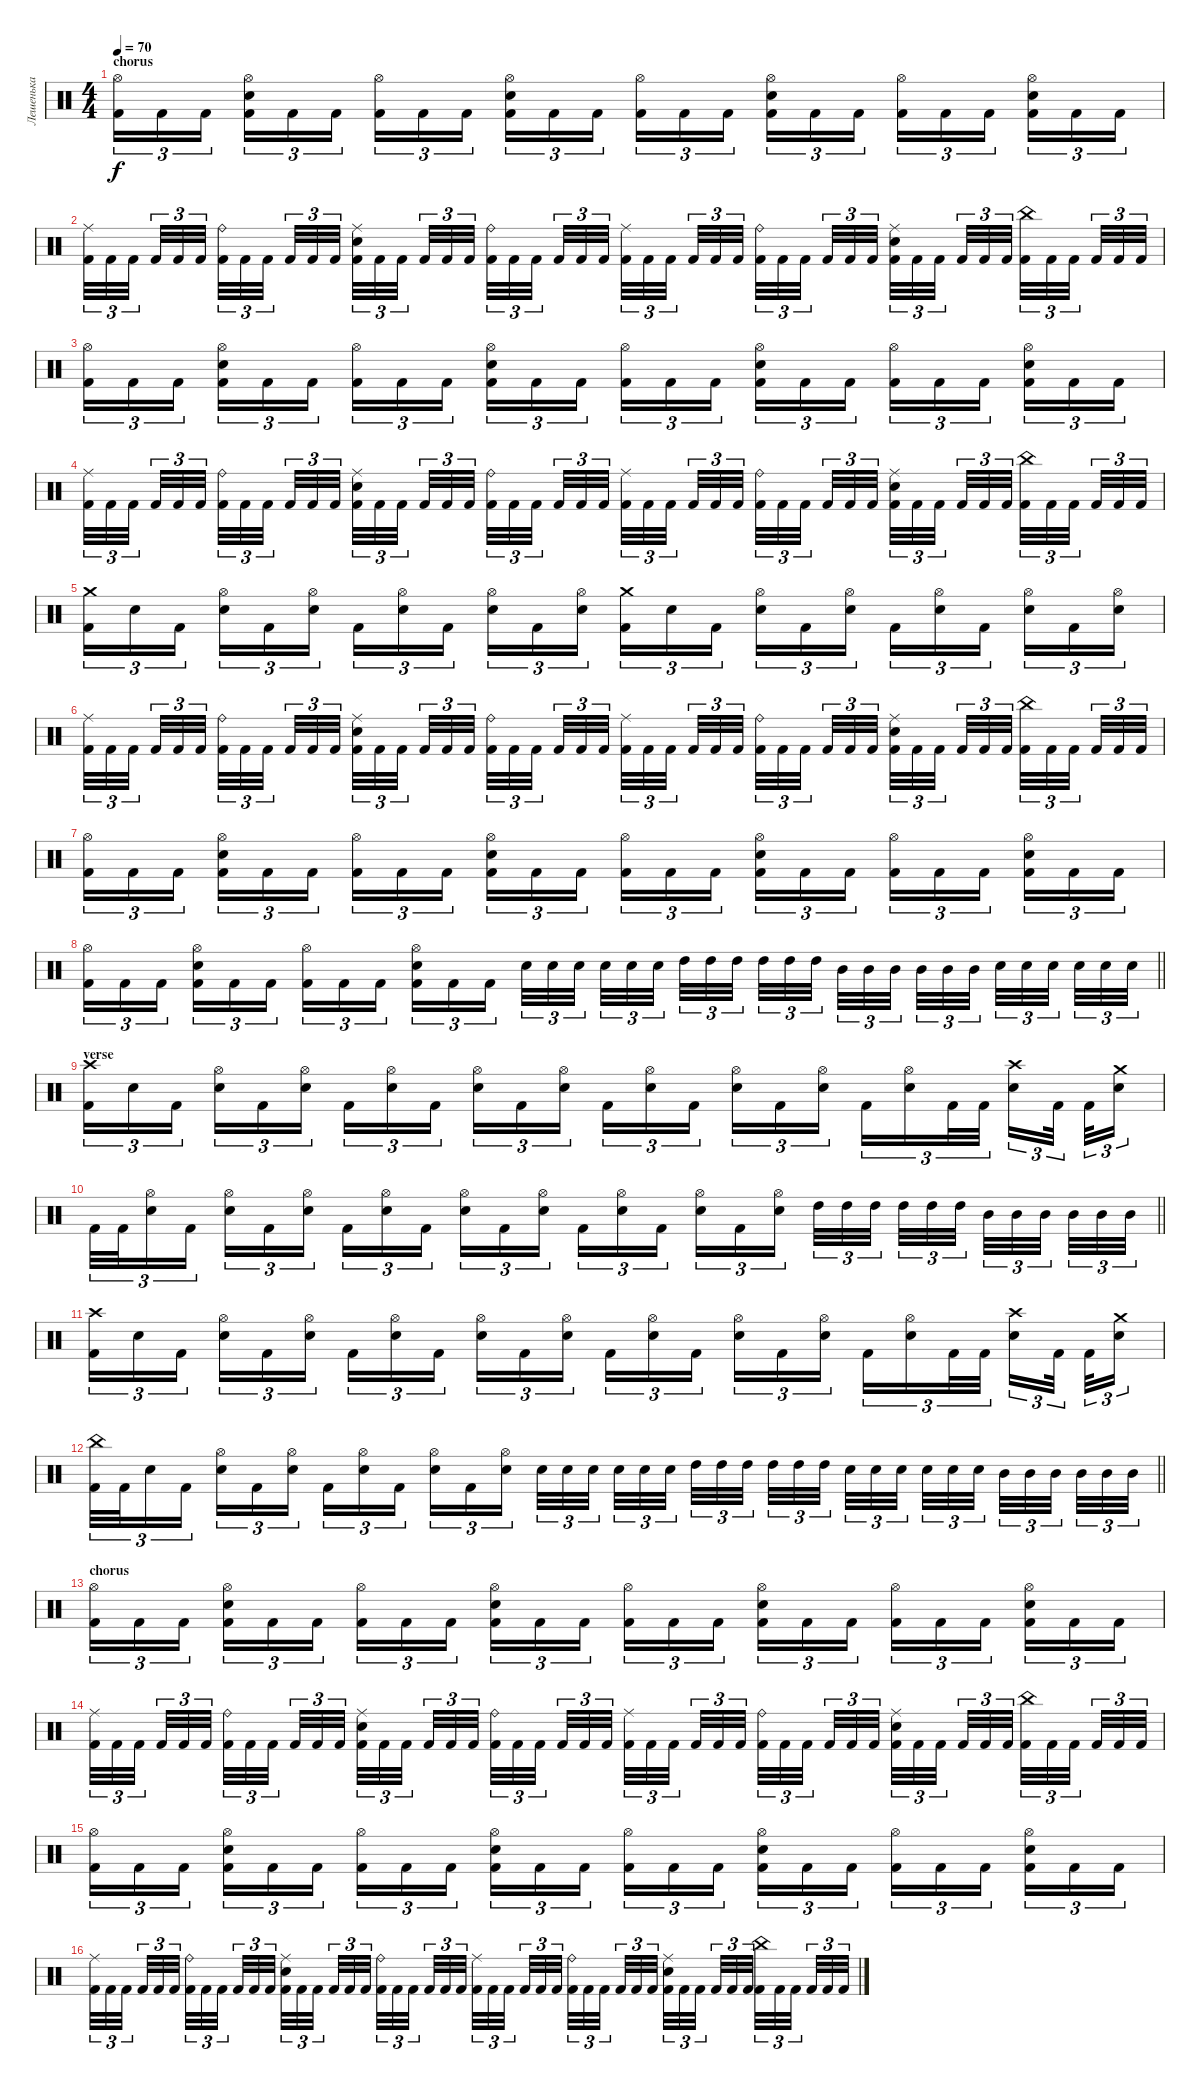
\track ("Лешенька" "Лешенька") {instrument percussion}
\staff {score}
\articulation defaults
\ts (4 4)
\section ("" "chorus")
\tempo 70
\clef neutral
\ks c
("Hi-Hat (open)" "Kick (hit) 2").16{tu (3 2) dy f} "Kick (hit) 2".16{tu (3 2)} "Kick (hit) 2".16{tu (3 2) beam splitsecondary} ("Hi-Hat (open)" "Electric Snare (hit)" "Kick (hit) 2").16{tu (3 2)} "Kick (hit) 2".16{tu (3 2)} "Kick (hit) 2".16{tu (3 2)} ("Hi-Hat (open)" "Kick (hit) 2").16{tu (3 2)} "Kick (hit) 2".16{tu (3 2)} "Kick (hit) 2".16{tu (3 2) beam splitsecondary} ("Hi-Hat (open)" "Electric Snare (hit)" "Kick (hit) 2").16{tu (3 2)} "Kick (hit) 2".16{tu (3 2)} "Kick (hit) 2".16{tu (3 2)} ("Hi-Hat (open)" "Kick (hit) 2").16{tu (3 2)} "Kick (hit) 2".16{tu (3 2)} "Kick (hit) 2".16{tu (3 2) beam splitsecondary} ("Hi-Hat (open)" "Electric Snare (hit)" "Kick (hit) 2").16{tu (3 2)} "Kick (hit) 2".16{tu (3 2)} "Kick (hit) 2".16{tu (3 2)} ("Hi-Hat (open)" "Kick (hit) 2").16{tu (3 2)} "Kick (hit) 2".16{tu (3 2)} "Kick (hit) 2".16{tu (3 2) beam splitsecondary} ("Hi-Hat (open)" "Electric Snare (hit)" "Kick (hit) 2").16{tu (3 2)} "Kick (hit) 2".16{tu (3 2)} "Kick (hit) 2".16{tu (3 2)} |
("Ride (middle)" "Kick (hit) 2").32{tu (3 2)} "Kick (hit) 2".32{tu (3 2)} "Kick (hit) 2".32{tu (3 2) beam splitsecondary} "Kick (hit) 2".32{tu (3 2)} "Kick (hit) 2".32{tu (3 2)} "Kick (hit) 2".32{tu (3 2) beam splitsecondary} ("Ride (bell)" "Kick (hit) 2").32{tu (3 2)} "Kick (hit) 2".32{tu (3 2)} "Kick (hit) 2".32{tu (3 2) beam splitsecondary} "Kick (hit) 2".32{tu (3 2)} "Kick (hit) 2".32{tu (3 2)} "Kick (hit) 2".32{tu (3 2)} ("Ride (middle)" "Electric Snare (hit)" "Kick (hit) 2").32{tu (3 2)} "Kick (hit) 2".32{tu (3 2)} "Kick (hit) 2".32{tu (3 2) beam splitsecondary} "Kick (hit) 2".32{tu (3 2)} "Kick (hit) 2".32{tu (3 2)} "Kick (hit) 2".32{tu (3 2) beam splitsecondary} ("Ride (bell)" "Kick (hit) 2").32{tu (3 2)} "Kick (hit) 2".32{tu (3 2)} "Kick (hit) 2".32{tu (3 2) beam splitsecondary} "Kick (hit) 2".32{tu (3 2)} "Kick (hit) 2".32{tu (3 2)} "Kick (hit) 2".32{tu (3 2)} ("Ride (middle)" "Kick (hit) 2").32{tu (3 2)} "Kick (hit) 2".32{tu (3 2)} "Kick (hit) 2".32{tu (3 2) beam splitsecondary} "Kick (hit) 2".32{tu (3 2)} "Kick (hit) 2".32{tu (3 2)} "Kick (hit) 2".32{tu (3 2) beam splitsecondary} ("Ride (bell)" "Kick (hit) 2").32{tu (3 2)} "Kick (hit) 2".32{tu (3 2)} "Kick (hit) 2".32{tu (3 2) beam splitsecondary} "Kick (hit) 2".32{tu (3 2)} "Kick (hit) 2".32{tu (3 2)} "Kick (hit) 2".32{tu (3 2)} ("Ride (middle)" "Electric Snare (hit)" "Kick (hit) 2").32{tu (3 2)} "Kick (hit) 2".32{tu (3 2)} "Kick (hit) 2".32{tu (3 2) beam splitsecondary} "Kick (hit) 2".32{tu (3 2)} "Kick (hit) 2".32{tu (3 2)} "Kick (hit) 2".32{tu (3 2) beam splitsecondary} ("China (hit)" "Kick (hit) 2").32{tu (3 2)} "Kick (hit) 2".32{tu (3 2)} "Kick (hit) 2".32{tu (3 2) beam splitsecondary} "Kick (hit) 2".32{tu (3 2)} "Kick (hit) 2".32{tu (3 2)} "Kick (hit) 2".32{tu (3 2)} |
("Hi-Hat (open)" "Kick (hit) 2").16{tu (3 2)} "Kick (hit) 2".16{tu (3 2)} "Kick (hit) 2".16{tu (3 2) beam splitsecondary} ("Hi-Hat (open)" "Electric Snare (hit)" "Kick (hit) 2").16{tu (3 2)} "Kick (hit) 2".16{tu (3 2)} "Kick (hit) 2".16{tu (3 2)} ("Hi-Hat (open)" "Kick (hit) 2").16{tu (3 2)} "Kick (hit) 2".16{tu (3 2)} "Kick (hit) 2".16{tu (3 2) beam splitsecondary} ("Hi-Hat (open)" "Electric Snare (hit)" "Kick (hit) 2").16{tu (3 2)} "Kick (hit) 2".16{tu (3 2)} "Kick (hit) 2".16{tu (3 2)} ("Hi-Hat (open)" "Kick (hit) 2").16{tu (3 2)} "Kick (hit) 2".16{tu (3 2)} "Kick (hit) 2".16{tu (3 2) beam splitsecondary} ("Hi-Hat (open)" "Electric Snare (hit)" "Kick (hit) 2").16{tu (3 2)} "Kick (hit) 2".16{tu (3 2)} "Kick (hit) 2".16{tu (3 2)} ("Hi-Hat (open)" "Kick (hit) 2").16{tu (3 2)} "Kick (hit) 2".16{tu (3 2)} "Kick (hit) 2".16{tu (3 2) beam splitsecondary} ("Hi-Hat (open)" "Electric Snare (hit)" "Kick (hit) 2").16{tu (3 2)} "Kick (hit) 2".16{tu (3 2)} "Kick (hit) 2".16{tu (3 2)} |
("Ride (middle)" "Kick (hit) 2").32{tu (3 2)} "Kick (hit) 2".32{tu (3 2)} "Kick (hit) 2".32{tu (3 2) beam splitsecondary} "Kick (hit) 2".32{tu (3 2)} "Kick (hit) 2".32{tu (3 2)} "Kick (hit) 2".32{tu (3 2) beam splitsecondary} ("Ride (bell)" "Kick (hit) 2").32{tu (3 2)} "Kick (hit) 2".32{tu (3 2)} "Kick (hit) 2".32{tu (3 2) beam splitsecondary} "Kick (hit) 2".32{tu (3 2)} "Kick (hit) 2".32{tu (3 2)} "Kick (hit) 2".32{tu (3 2)} ("Ride (middle)" "Electric Snare (hit)" "Kick (hit) 2").32{tu (3 2)} "Kick (hit) 2".32{tu (3 2)} "Kick (hit) 2".32{tu (3 2) beam splitsecondary} "Kick (hit) 2".32{tu (3 2)} "Kick (hit) 2".32{tu (3 2)} "Kick (hit) 2".32{tu (3 2) beam splitsecondary} ("Ride (bell)" "Kick (hit) 2").32{tu (3 2)} "Kick (hit) 2".32{tu (3 2)} "Kick (hit) 2".32{tu (3 2) beam splitsecondary} "Kick (hit) 2".32{tu (3 2)} "Kick (hit) 2".32{tu (3 2)} "Kick (hit) 2".32{tu (3 2)} ("Ride (middle)" "Kick (hit) 2").32{tu (3 2)} "Kick (hit) 2".32{tu (3 2)} "Kick (hit) 2".32{tu (3 2) beam splitsecondary} "Kick (hit) 2".32{tu (3 2)} "Kick (hit) 2".32{tu (3 2)} "Kick (hit) 2".32{tu (3 2) beam splitsecondary} ("Ride (bell)" "Kick (hit) 2").32{tu (3 2)} "Kick (hit) 2".32{tu (3 2)} "Kick (hit) 2".32{tu (3 2) beam splitsecondary} "Kick (hit) 2".32{tu (3 2)} "Kick (hit) 2".32{tu (3 2)} "Kick (hit) 2".32{tu (3 2)} ("Ride (middle)" "Electric Snare (hit)" "Kick (hit) 2").32{tu (3 2)} "Kick (hit) 2".32{tu (3 2)} "Kick (hit) 2".32{tu (3 2) beam splitsecondary} "Kick (hit) 2".32{tu (3 2)} "Kick (hit) 2".32{tu (3 2)} "Kick (hit) 2".32{tu (3 2) beam splitsecondary} ("China (hit)" "Kick (hit) 2").32{tu (3 2)} "Kick (hit) 2".32{tu (3 2)} "Kick (hit) 2".32{tu (3 2) beam splitsecondary} "Kick (hit) 2".32{tu (3 2)} "Kick (hit) 2".32{tu (3 2)} "Kick (hit) 2".32{tu (3 2)} |
("Crash medium (hit)" "Kick (hit) 2").16{tu (3 2)} "Electric Snare (hit)".16{tu (3 2)} "Kick (hit) 2".16{tu (3 2) beam splitsecondary} ("Hi-Hat (open)" "Electric Snare (hit)").16{tu (3 2)} "Kick (hit) 2".16{tu (3 2)} ("Hi-Hat (open)" "Electric Snare (hit)").16{tu (3 2)} "Kick (hit) 2".16{tu (3 2)} ("Hi-Hat (open)" "Electric Snare (hit)").16{tu (3 2)} "Kick (hit) 2".16{tu (3 2) beam splitsecondary} ("Hi-Hat (open)" "Electric Snare (hit)").16{tu (3 2)} "Kick (hit) 2".16{tu (3 2)} ("Hi-Hat (open)" "Electric Snare (hit)").16{tu (3 2)} ("Crash medium (hit)" "Kick (hit) 2").16{tu (3 2)} "Electric Snare (hit)".16{tu (3 2)} "Kick (hit) 2".16{tu (3 2) beam splitsecondary} ("Hi-Hat (open)" "Electric Snare (hit)").16{tu (3 2)} "Kick (hit) 2".16{tu (3 2)} ("Hi-Hat (open)" "Electric Snare (hit)").16{tu (3 2)} "Kick (hit) 2".16{tu (3 2)} ("Hi-Hat (open)" "Electric Snare (hit)").16{tu (3 2)} "Kick (hit) 2".16{tu (3 2) beam splitsecondary} ("Hi-Hat (open)" "Electric Snare (hit)").16{tu (3 2)} "Kick (hit) 2".16{tu (3 2)} ("Hi-Hat (open)" "Electric Snare (hit)").16{tu (3 2)} |
("Ride (middle)" "Kick (hit) 2").32{tu (3 2)} "Kick (hit) 2".32{tu (3 2)} "Kick (hit) 2".32{tu (3 2) beam splitsecondary} "Kick (hit) 2".32{tu (3 2)} "Kick (hit) 2".32{tu (3 2)} "Kick (hit) 2".32{tu (3 2) beam splitsecondary} ("Ride (bell)" "Kick (hit) 2").32{tu (3 2)} "Kick (hit) 2".32{tu (3 2)} "Kick (hit) 2".32{tu (3 2) beam splitsecondary} "Kick (hit) 2".32{tu (3 2)} "Kick (hit) 2".32{tu (3 2)} "Kick (hit) 2".32{tu (3 2)} ("Ride (middle)" "Electric Snare (hit)" "Kick (hit) 2").32{tu (3 2)} "Kick (hit) 2".32{tu (3 2)} "Kick (hit) 2".32{tu (3 2) beam splitsecondary} "Kick (hit) 2".32{tu (3 2)} "Kick (hit) 2".32{tu (3 2)} "Kick (hit) 2".32{tu (3 2) beam splitsecondary} ("Ride (bell)" "Kick (hit) 2").32{tu (3 2)} "Kick (hit) 2".32{tu (3 2)} "Kick (hit) 2".32{tu (3 2) beam splitsecondary} "Kick (hit) 2".32{tu (3 2)} "Kick (hit) 2".32{tu (3 2)} "Kick (hit) 2".32{tu (3 2)} ("Ride (middle)" "Kick (hit) 2").32{tu (3 2)} "Kick (hit) 2".32{tu (3 2)} "Kick (hit) 2".32{tu (3 2) beam splitsecondary} "Kick (hit) 2".32{tu (3 2)} "Kick (hit) 2".32{tu (3 2)} "Kick (hit) 2".32{tu (3 2) beam splitsecondary} ("Ride (bell)" "Kick (hit) 2").32{tu (3 2)} "Kick (hit) 2".32{tu (3 2)} "Kick (hit) 2".32{tu (3 2) beam splitsecondary} "Kick (hit) 2".32{tu (3 2)} "Kick (hit) 2".32{tu (3 2)} "Kick (hit) 2".32{tu (3 2)} ("Ride (middle)" "Electric Snare (hit)" "Kick (hit) 2").32{tu (3 2)} "Kick (hit) 2".32{tu (3 2)} "Kick (hit) 2".32{tu (3 2) beam splitsecondary} "Kick (hit) 2".32{tu (3 2)} "Kick (hit) 2".32{tu (3 2)} "Kick (hit) 2".32{tu (3 2) beam splitsecondary} ("China (hit)" "Kick (hit) 2").32{tu (3 2)} "Kick (hit) 2".32{tu (3 2)} "Kick (hit) 2".32{tu (3 2) beam splitsecondary} "Kick (hit) 2".32{tu (3 2)} "Kick (hit) 2".32{tu (3 2)} "Kick (hit) 2".32{tu (3 2)} |
("Hi-Hat (open)" "Kick (hit) 2").16{tu (3 2)} "Kick (hit) 2".16{tu (3 2)} "Kick (hit) 2".16{tu (3 2) beam splitsecondary} ("Hi-Hat (open)" "Electric Snare (hit)" "Kick (hit) 2").16{tu (3 2)} "Kick (hit) 2".16{tu (3 2)} "Kick (hit) 2".16{tu (3 2)} ("Hi-Hat (open)" "Kick (hit) 2").16{tu (3 2)} "Kick (hit) 2".16{tu (3 2)} "Kick (hit) 2".16{tu (3 2) beam splitsecondary} ("Hi-Hat (open)" "Electric Snare (hit)" "Kick (hit) 2").16{tu (3 2)} "Kick (hit) 2".16{tu (3 2)} "Kick (hit) 2".16{tu (3 2)} ("Hi-Hat (open)" "Kick (hit) 2").16{tu (3 2)} "Kick (hit) 2".16{tu (3 2)} "Kick (hit) 2".16{tu (3 2) beam splitsecondary} ("Hi-Hat (open)" "Electric Snare (hit)" "Kick (hit) 2").16{tu (3 2)} "Kick (hit) 2".16{tu (3 2)} "Kick (hit) 2".16{tu (3 2)} ("Hi-Hat (open)" "Kick (hit) 2").16{tu (3 2)} "Kick (hit) 2".16{tu (3 2)} "Kick (hit) 2".16{tu (3 2) beam splitsecondary} ("Hi-Hat (open)" "Electric Snare (hit)" "Kick (hit) 2").16{tu (3 2)} "Kick (hit) 2".16{tu (3 2)} "Kick (hit) 2".16{tu (3 2)} |
\barLineRight lightlight
("Hi-Hat (open)" "Kick (hit) 2").16{tu (3 2)} "Kick (hit) 2".16{tu (3 2)} "Kick (hit) 2".16{tu (3 2) beam splitsecondary} ("Hi-Hat (open)" "Electric Snare (hit)" "Kick (hit) 2").16{tu (3 2)} "Kick (hit) 2".16{tu (3 2)} "Kick (hit) 2".16{tu (3 2)} ("Hi-Hat (open)" "Kick (hit) 2").16{tu (3 2)} "Kick (hit) 2".16{tu (3 2)} "Kick (hit) 2".16{tu (3 2) beam splitsecondary} ("Hi-Hat (open)" "Electric Snare (hit)" "Kick (hit) 2").16{tu (3 2)} "Kick (hit) 2".16{tu (3 2)} "Kick (hit) 2".16{tu (3 2)} "Electric Snare (hit)".32{tu (3 2)} "Electric Snare (hit)".32{tu (3 2)} "Electric Snare (hit)".32{tu (3 2) beam splitsecondary} "Electric Snare (hit)".32{tu (3 2)} "Electric Snare (hit)".32{tu (3 2)} "Electric Snare (hit)".32{tu (3 2) beam splitsecondary} "High Tom (hit)".32{tu (3 2)} "High Tom (hit)".32{tu (3 2)} "High Tom (hit)".32{tu (3 2) beam splitsecondary} "High Tom (hit)".32{tu (3 2)} "High Tom (hit)".32{tu (3 2)} "High Tom (hit)".32{tu (3 2)} "Mid Tom (hit)".32{tu (3 2)} "Mid Tom (hit)".32{tu (3 2)} "Mid Tom (hit)".32{tu (3 2) beam splitsecondary} "Mid Tom (hit)".32{tu (3 2)} "Mid Tom (hit)".32{tu (3 2)} "Mid Tom (hit)".32{tu (3 2) beam splitsecondary} "Electric Snare (hit)".32{tu (3 2)} "Electric Snare (hit)".32{tu (3 2)} "Electric Snare (hit)".32{tu (3 2) beam splitsecondary} "Electric Snare (hit)".32{tu (3 2)} "Electric Snare (hit)".32{tu (3 2)} "Electric Snare (hit)".32{tu (3 2)} |
\section ("" "verse")
("Crash high (hit)" "Kick (hit) 2").16{tu (3 2)} "Electric Snare (hit)".16{tu (3 2)} "Kick (hit) 2".16{tu (3 2) beam splitsecondary} ("Hi-Hat (open)" "Electric Snare (hit)").16{tu (3 2)} "Kick (hit) 2".16{tu (3 2)} ("Hi-Hat (open)" "Electric Snare (hit)").16{tu (3 2)} "Kick (hit) 2".16{tu (3 2)} ("Hi-Hat (open)" "Electric Snare (hit)").16{tu (3 2)} "Kick (hit) 2".16{tu (3 2) beam splitsecondary} ("Hi-Hat (open)" "Electric Snare (hit)").16{tu (3 2)} "Kick (hit) 2".16{tu (3 2)} ("Hi-Hat (open)" "Electric Snare (hit)").16{tu (3 2)} "Kick (hit) 2".16{tu (3 2)} ("Hi-Hat (open)" "Electric Snare (hit)").16{tu (3 2)} "Kick (hit) 2".16{tu (3 2) beam splitsecondary} ("Hi-Hat (open)" "Electric Snare (hit)").16{tu (3 2)} "Kick (hit) 2".16{tu (3 2)} ("Hi-Hat (open)" "Electric Snare (hit)").16{tu (3 2)} "Kick (hit) 2".16{tu (3 2)} ("Hi-Hat (open)" "Electric Snare (hit)").16{tu (3 2)} "Kick (hit) 2".32{tu (3 2)} "Kick (hit) 2".32{tu (3 2) beam splitsecondary} ("Crash high (hit)" "Electric Snare (hit)").16{tu (3 2)} "Kick (hit) 2".32{tu (3 2) beam splitsecondary} "Kick (hit) 2".32{tu (3 2)} ("Crash medium (hit)" "Electric Snare (hit)").16{tu (3 2)} |
\barLineRight lightlight "Kick (hit) 2".32{tu (3 2)} "Kick (hit) 2".32{tu (3 2)}
("Hi-Hat (open)" "Electric Snare (hit)").16{tu (3 2)} "Kick (hit) 2".16{tu (3 2) beam splitsecondary} ("Hi-Hat (open)" "Electric Snare (hit)").16{tu (3 2)} "Kick (hit) 2".16{tu (3 2)} ("Hi-Hat (open)" "Electric Snare (hit)").16{tu (3 2)} "Kick (hit) 2".16{tu (3 2)} ("Hi-Hat (open)" "Electric Snare (hit)").16{tu (3 2)} "Kick (hit) 2".16{tu (3 2) beam splitsecondary} ("Hi-Hat (open)" "Electric Snare (hit)").16{tu (3 2)} "Kick (hit) 2".16{tu (3 2)} ("Hi-Hat (open)" "Electric Snare (hit)").16{tu (3 2)} "Kick (hit) 2".16{tu (3 2)} ("Hi-Hat (open)" "Electric Snare (hit)").16{tu (3 2)} "Kick (hit) 2".16{tu (3 2) beam splitsecondary} ("Hi-Hat (open)" "Electric Snare (hit)").16{tu (3 2)} "Kick (hit) 2".16{tu (3 2)} ("Hi-Hat (open)" "Electric Snare (hit)").16{tu (3 2)} "High Tom (hit)".32{tu (3 2)} "High Tom (hit)".32{tu (3 2)} "High Tom (hit)".32{tu (3 2) beam splitsecondary} "High Tom (hit)".32{tu (3 2)} "High Tom (hit)".32{tu (3 2)} "High Tom (hit)".32{tu (3 2) beam splitsecondary} "Mid Tom (hit)".32{tu (3 2)} "Mid Tom (hit)".32{tu (3 2)} "Mid Tom (hit)".32{tu (3 2) beam splitsecondary} "Mid Tom (hit)".32{tu (3 2)} "Mid Tom (hit)".32{tu (3 2)} "Mid Tom (hit)".32{tu (3 2)} |
("Crash high (hit)" "Kick (hit) 2").16{tu (3 2)} "Electric Snare (hit)".16{tu (3 2)} "Kick (hit) 2".16{tu (3 2) beam splitsecondary} ("Hi-Hat (open)" "Electric Snare (hit)").16{tu (3 2)} "Kick (hit) 2".16{tu (3 2)} ("Hi-Hat (open)" "Electric Snare (hit)").16{tu (3 2)} "Kick (hit) 2".16{tu (3 2)} ("Hi-Hat (open)" "Electric Snare (hit)").16{tu (3 2)} "Kick (hit) 2".16{tu (3 2) beam splitsecondary} ("Hi-Hat (open)" "Electric Snare (hit)").16{tu (3 2)} "Kick (hit) 2".16{tu (3 2)} ("Hi-Hat (open)" "Electric Snare (hit)").16{tu (3 2)} "Kick (hit) 2".16{tu (3 2)} ("Hi-Hat (open)" "Electric Snare (hit)").16{tu (3 2)} "Kick (hit) 2".16{tu (3 2) beam splitsecondary} ("Hi-Hat (open)" "Electric Snare (hit)").16{tu (3 2)} "Kick (hit) 2".16{tu (3 2)} ("Hi-Hat (open)" "Electric Snare (hit)").16{tu (3 2)} "Kick (hit) 2".16{tu (3 2)} ("Hi-Hat (open)" "Electric Snare (hit)").16{tu (3 2)} "Kick (hit) 2".32{tu (3 2)} "Kick (hit) 2".32{tu (3 2) beam splitsecondary} ("Crash high (hit)" "Electric Snare (hit)").16{tu (3 2)} "Kick (hit) 2".32{tu (3 2) beam splitsecondary} "Kick (hit) 2".32{tu (3 2)} ("Crash medium (hit)" "Electric Snare (hit)").16{tu (3 2)} |
\barLineRight lightlight
("China (hit)" "Kick (hit) 2").32{tu (3 2)} "Kick (hit) 2".32{tu (3 2)} "Electric Snare (hit)".16{tu (3 2)} "Kick (hit) 2".16{tu (3 2) beam splitsecondary} ("Hi-Hat (open)" "Electric Snare (hit)").16{tu (3 2)} "Kick (hit) 2".16{tu (3 2)} ("Hi-Hat (open)" "Electric Snare (hit)").16{tu (3 2)} "Kick (hit) 2".16{tu (3 2)} ("Hi-Hat (open)" "Electric Snare (hit)").16{tu (3 2)} "Kick (hit) 2".16{tu (3 2) beam splitsecondary} ("Hi-Hat (open)" "Electric Snare (hit)").16{tu (3 2)} "Kick (hit) 2".16{tu (3 2)} ("Hi-Hat (open)" "Electric Snare (hit)").16{tu (3 2)} "Electric Snare (hit)".32{tu (3 2)} "Electric Snare (hit)".32{tu (3 2)} "Electric Snare (hit)".32{tu (3 2) beam splitsecondary} "Electric Snare (hit)".32{tu (3 2)} "Electric Snare (hit)".32{tu (3 2)} "Electric Snare (hit)".32{tu (3 2) beam splitsecondary} "High Tom (hit)".32{tu (3 2)} "High Tom (hit)".32{tu (3 2)} "High Tom (hit)".32{tu (3 2) beam splitsecondary} "High Tom (hit)".32{tu (3 2)} "High Tom (hit)".32{tu (3 2)} "High Tom (hit)".32{tu (3 2)} "Electric Snare (hit)".32{tu (3 2)} "Electric Snare (hit)".32{tu (3 2)} "Electric Snare (hit)".32{tu (3 2) beam splitsecondary} "Electric Snare (hit)".32{tu (3 2)} "Electric Snare (hit)".32{tu (3 2)} "Electric Snare (hit)".32{tu (3 2) beam splitsecondary} "Mid Tom (hit)".32{tu (3 2)} "Mid Tom (hit)".32{tu (3 2)} "Mid Tom (hit)".32{tu (3 2) beam splitsecondary} "Mid Tom (hit)".32{tu (3 2)} "Mid Tom (hit)".32{tu (3 2)} "Mid Tom (hit)".32{tu (3 2)} |
\section ("" "chorus")
("Hi-Hat (open)" "Kick (hit) 2").16{tu (3 2)} "Kick (hit) 2".16{tu (3 2)} "Kick (hit) 2".16{tu (3 2) beam splitsecondary} ("Hi-Hat (open)" "Electric Snare (hit)" "Kick (hit) 2").16{tu (3 2)} "Kick (hit) 2".16{tu (3 2)} "Kick (hit) 2".16{tu (3 2)} ("Hi-Hat (open)" "Kick (hit) 2").16{tu (3 2)} "Kick (hit) 2".16{tu (3 2)} "Kick (hit) 2".16{tu (3 2) beam splitsecondary} ("Hi-Hat (open)" "Electric Snare (hit)" "Kick (hit) 2").16{tu (3 2)} "Kick (hit) 2".16{tu (3 2)} "Kick (hit) 2".16{tu (3 2)} ("Hi-Hat (open)" "Kick (hit) 2").16{tu (3 2)} "Kick (hit) 2".16{tu (3 2)} "Kick (hit) 2".16{tu (3 2) beam splitsecondary} ("Hi-Hat (open)" "Electric Snare (hit)" "Kick (hit) 2").16{tu (3 2)} "Kick (hit) 2".16{tu (3 2)} "Kick (hit) 2".16{tu (3 2)} ("Hi-Hat (open)" "Kick (hit) 2").16{tu (3 2)} "Kick (hit) 2".16{tu (3 2)} "Kick (hit) 2".16{tu (3 2) beam splitsecondary} ("Hi-Hat (open)" "Electric Snare (hit)" "Kick (hit) 2").16{tu (3 2)} "Kick (hit) 2".16{tu (3 2)} "Kick (hit) 2".16{tu (3 2)} |
("Ride (middle)" "Kick (hit) 2").32{tu (3 2)} "Kick (hit) 2".32{tu (3 2)} "Kick (hit) 2".32{tu (3 2) beam splitsecondary} "Kick (hit) 2".32{tu (3 2)} "Kick (hit) 2".32{tu (3 2)} "Kick (hit) 2".32{tu (3 2) beam splitsecondary} ("Ride (bell)" "Kick (hit) 2").32{tu (3 2)} "Kick (hit) 2".32{tu (3 2)} "Kick (hit) 2".32{tu (3 2) beam splitsecondary} "Kick (hit) 2".32{tu (3 2)} "Kick (hit) 2".32{tu (3 2)} "Kick (hit) 2".32{tu (3 2)} ("Ride (middle)" "Electric Snare (hit)" "Kick (hit) 2").32{tu (3 2)} "Kick (hit) 2".32{tu (3 2)} "Kick (hit) 2".32{tu (3 2) beam splitsecondary} "Kick (hit) 2".32{tu (3 2)} "Kick (hit) 2".32{tu (3 2)} "Kick (hit) 2".32{tu (3 2) beam splitsecondary} ("Ride (bell)" "Kick (hit) 2").32{tu (3 2)} "Kick (hit) 2".32{tu (3 2)} "Kick (hit) 2".32{tu (3 2) beam splitsecondary} "Kick (hit) 2".32{tu (3 2)} "Kick (hit) 2".32{tu (3 2)} "Kick (hit) 2".32{tu (3 2)} ("Ride (middle)" "Kick (hit) 2").32{tu (3 2)} "Kick (hit) 2".32{tu (3 2)} "Kick (hit) 2".32{tu (3 2) beam splitsecondary} "Kick (hit) 2".32{tu (3 2)} "Kick (hit) 2".32{tu (3 2)} "Kick (hit) 2".32{tu (3 2) beam splitsecondary} ("Ride (bell)" "Kick (hit) 2").32{tu (3 2)} "Kick (hit) 2".32{tu (3 2)} "Kick (hit) 2".32{tu (3 2) beam splitsecondary} "Kick (hit) 2".32{tu (3 2)} "Kick (hit) 2".32{tu (3 2)} "Kick (hit) 2".32{tu (3 2)} ("Ride (middle)" "Electric Snare (hit)" "Kick (hit) 2").32{tu (3 2)} "Kick (hit) 2".32{tu (3 2)} "Kick (hit) 2".32{tu (3 2) beam splitsecondary} "Kick (hit) 2".32{tu (3 2)} "Kick (hit) 2".32{tu (3 2)} "Kick (hit) 2".32{tu (3 2) beam splitsecondary} ("China (hit)" "Kick (hit) 2").32{tu (3 2)} "Kick (hit) 2".32{tu (3 2)} "Kick (hit) 2".32{tu (3 2) beam splitsecondary} "Kick (hit) 2".32{tu (3 2)} "Kick (hit) 2".32{tu (3 2)} "Kick (hit) 2".32{tu (3 2)} |
("Hi-Hat (open)" "Kick (hit) 2").16{tu (3 2)} "Kick (hit) 2".16{tu (3 2)} "Kick (hit) 2".16{tu (3 2) beam splitsecondary} ("Hi-Hat (open)" "Electric Snare (hit)" "Kick (hit) 2").16{tu (3 2)} "Kick (hit) 2".16{tu (3 2)} "Kick (hit) 2".16{tu (3 2)} ("Hi-Hat (open)" "Kick (hit) 2").16{tu (3 2)} "Kick (hit) 2".16{tu (3 2)} "Kick (hit) 2".16{tu (3 2) beam splitsecondary} ("Hi-Hat (open)" "Electric Snare (hit)" "Kick (hit) 2").16{tu (3 2)} "Kick (hit) 2".16{tu (3 2)} "Kick (hit) 2".16{tu (3 2)} ("Hi-Hat (open)" "Kick (hit) 2").16{tu (3 2)} "Kick (hit) 2".16{tu (3 2)} "Kick (hit) 2".16{tu (3 2) beam splitsecondary} ("Hi-Hat (open)" "Electric Snare (hit)" "Kick (hit) 2").16{tu (3 2)} "Kick (hit) 2".16{tu (3 2)} "Kick (hit) 2".16{tu (3 2)} ("Hi-Hat (open)" "Kick (hit) 2").16{tu (3 2)} "Kick (hit) 2".16{tu (3 2)} "Kick (hit) 2".16{tu (3 2) beam splitsecondary} ("Hi-Hat (open)" "Electric Snare (hit)" "Kick (hit) 2").16{tu (3 2)} "Kick (hit) 2".16{tu (3 2)} "Kick (hit) 2".16{tu (3 2)} |
("Ride (middle)" "Kick (hit) 2").32{tu (3 2)} "Kick (hit) 2".32{tu (3 2)} "Kick (hit) 2".32{tu (3 2) beam splitsecondary} "Kick (hit) 2".32{tu (3 2)} "Kick (hit) 2".32{tu (3 2)} "Kick (hit) 2".32{tu (3 2) beam splitsecondary} ("Ride (bell)" "Kick (hit) 2").32{tu (3 2)} "Kick (hit) 2".32{tu (3 2)} "Kick (hit) 2".32{tu (3 2) beam splitsecondary} "Kick (hit) 2".32{tu (3 2)} "Kick (hit) 2".32{tu (3 2)} "Kick (hit) 2".32{tu (3 2)} ("Ride (middle)" "Electric Snare (hit)" "Kick (hit) 2").32{tu (3 2)} "Kick (hit) 2".32{tu (3 2)} "Kick (hit) 2".32{tu (3 2) beam splitsecondary} "Kick (hit) 2".32{tu (3 2)} "Kick (hit) 2".32{tu (3 2)} "Kick (hit) 2".32{tu (3 2) beam splitsecondary} ("Ride (bell)" "Kick (hit) 2").32{tu (3 2)} "Kick (hit) 2".32{tu (3 2)} "Kick (hit) 2".32{tu (3 2) beam splitsecondary} "Kick (hit) 2".32{tu (3 2)} "Kick (hit) 2".32{tu (3 2)} "Kick (hit) 2".32{tu (3 2)} ("Ride (middle)" "Kick (hit) 2").32{tu (3 2)} "Kick (hit) 2".32{tu (3 2)} "Kick (hit) 2".32{tu (3 2) beam splitsecondary} "Kick (hit) 2".32{tu (3 2)} "Kick (hit) 2".32{tu (3 2)} "Kick (hit) 2".32{tu (3 2) beam splitsecondary} ("Ride (bell)" "Kick (hit) 2").32{tu (3 2)} "Kick (hit) 2".32{tu (3 2)} "Kick (hit) 2".32{tu (3 2) beam splitsecondary} "Kick (hit) 2".32{tu (3 2)} "Kick (hit) 2".32{tu (3 2)} "Kick (hit) 2".32{tu (3 2)} ("Ride (middle)" "Electric Snare (hit)" "Kick (hit) 2").32{tu (3 2)} "Kick (hit) 2".32{tu (3 2)} "Kick (hit) 2".32{tu (3 2) beam splitsecondary} "Kick (hit) 2".32{tu (3 2)} "Kick (hit) 2".32{tu (3 2)} "Kick (hit) 2".32{tu (3 2) beam splitsecondary} ("China (hit)" "Kick (hit) 2").32{tu (3 2)} "Kick (hit) 2".32{tu (3 2)} "Kick (hit) 2".32{tu (3 2) beam splitsecondary} "Kick (hit) 2".32{tu (3 2)} "Kick (hit) 2".32{tu (3 2)} "Kick (hit) 2".32{tu (3 2)}
